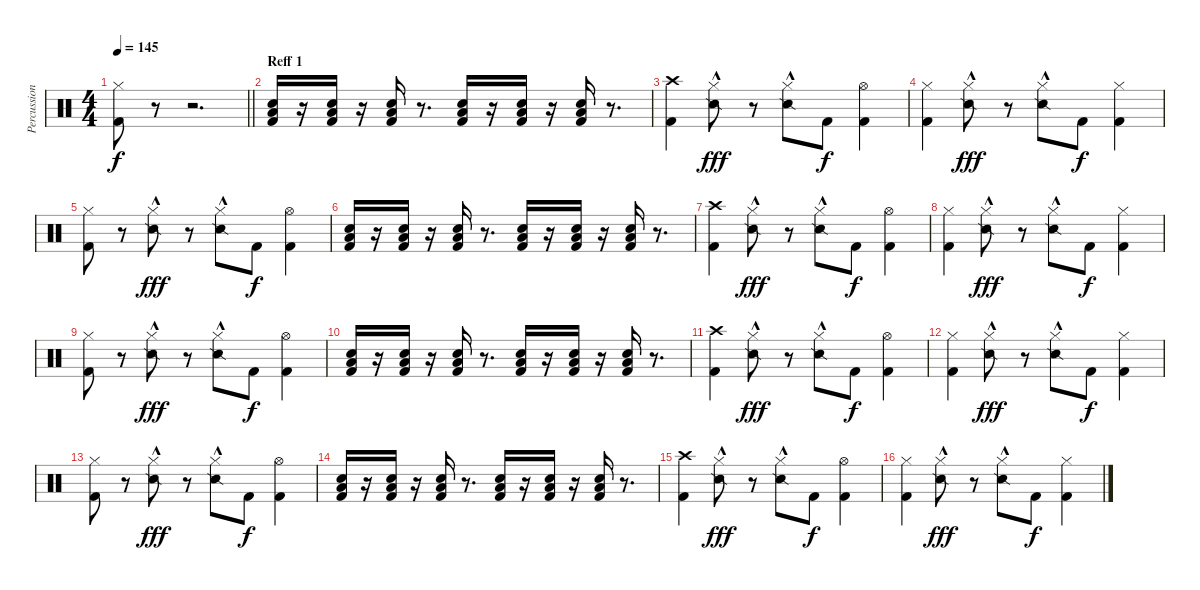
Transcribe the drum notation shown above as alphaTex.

\track ("Percussion 1" "Percussion") {instrument percussion}
\staff {score}
\articulation defaults
\ts (4 4)
\tempo 145
\clef neutral
\barLineRight lightlight
\ks c
("Hi-Hat (closed)" "Kick (hit) 2").8{dy f} r.8 r.2{d} |
\section ("" "Reff 1")
("Low Tom (hit)" "Electric Snare (hit)" "Kick (hit) 2").16 r.16 ("Low Tom (hit)" "Electric Snare (hit)" "Kick (hit) 2").16 r.16 ("Low Tom (hit)" "Electric Snare (hit)" "Kick (hit) 2").16 r.8{d} ("Low Tom (hit)" "Electric Snare (hit)" "Kick (hit) 2").16 r.16 ("Low Tom (hit)" "Electric Snare (hit)" "Kick (hit) 2").16 r.16 ("Low Tom (hit)" "Electric Snare (hit)" "Kick (hit) 2").16 r.8{d} |
("Crash high (hit)" "Kick (hit) 2").4 ("Hi-Hat (closed)" "Snare (side stick) 2"{hac}).8{dy fff} r.8 ("Hi-Hat (closed)" "Snare (side stick) 2"{hac}).8 "Kick (hit) 2".8{dy f} ("Hi-Hat (open)" "Kick (hit) 2").4 |
("Hi-Hat (closed)" "Kick (hit) 2").4 ("Hi-Hat (closed)" "Snare (side stick) 2"{hac}).8{dy fff} r.8 ("Hi-Hat (closed)" "Snare (side stick) 2"{hac}).8 "Kick (hit) 2".8{dy f} ("Hi-Hat (closed)" "Kick (hit) 2").4 |
("Hi-Hat (closed)" "Kick (hit) 2").8 r.8 ("Hi-Hat (closed)" "Snare (side stick) 2"{hac}).8{dy fff} r.8 ("Hi-Hat (closed)" "Snare (side stick) 2"{hac}).8 "Kick (hit) 2".8{dy f} ("Hi-Hat (open)" "Kick (hit) 2").4 |
("Low Tom (hit)" "Electric Snare (hit)" "Kick (hit) 2").16 r.16 ("Low Tom (hit)" "Electric Snare (hit)" "Kick (hit) 2").16 r.16 ("Low Tom (hit)" "Electric Snare (hit)" "Kick (hit) 2").16 r.8{d} ("Low Floor Tom (hit)" "Electric Snare (hit)" "Kick (hit) 2").16 r.16 ("Low Floor Tom (hit)" "Electric Snare (hit)" "Kick (hit) 2").16 r.16 ("Low Floor Tom (hit)" "Electric Snare (hit)" "Kick (hit) 2").16 r.8{d} |
("Crash high (hit)" "Kick (hit) 2").4 ("Hi-Hat (closed)" "Snare (side stick) 2"{hac}).8{dy fff} r.8 ("Hi-Hat (closed)" "Snare (side stick) 2"{hac}).8 "Kick (hit) 2".8{dy f} ("Hi-Hat (open)" "Kick (hit) 2").4 |
("Hi-Hat (closed)" "Kick (hit) 2").4 ("Hi-Hat (closed)" "Snare (side stick) 2"{hac}).8{dy fff} r.8 ("Hi-Hat (closed)" "Snare (side stick) 2"{hac}).8 "Kick (hit) 2".8{dy f} ("Hi-Hat (closed)" "Kick (hit) 2").4 |
("Hi-Hat (closed)" "Kick (hit) 2").8 r.8 ("Hi-Hat (closed)" "Snare (side stick) 2"{hac}).8{dy fff} r.8 ("Hi-Hat (closed)" "Snare (side stick) 2"{hac}).8 "Kick (hit) 2".8{dy f} ("Hi-Hat (open)" "Kick (hit) 2").4 |
("Low Tom (hit)" "Electric Snare (hit)" "Kick (hit) 2").16 r.16 ("Low Tom (hit)" "Electric Snare (hit)" "Kick (hit) 2").16 r.16 ("Low Tom (hit)" "Electric Snare (hit)" "Kick (hit) 2").16 r.8{d} ("Low Tom (hit)" "Electric Snare (hit)" "Kick (hit) 2").16 r.16 ("Low Tom (hit)" "Electric Snare (hit)" "Kick (hit) 2").16 r.16 ("Low Tom (hit)" "Electric Snare (hit)" "Kick (hit) 2").16 r.8{d} |
("Crash high (hit)" "Kick (hit) 2").4 ("Hi-Hat (closed)" "Snare (side stick) 2"{hac}).8{dy fff} r.8 ("Hi-Hat (closed)" "Snare (side stick) 2"{hac}).8 "Kick (hit) 2".8{dy f} ("Hi-Hat (open)" "Kick (hit) 2").4 |
("Hi-Hat (closed)" "Kick (hit) 2").4 ("Hi-Hat (closed)" "Snare (side stick) 2"{hac}).8{dy fff} r.8 ("Hi-Hat (closed)" "Snare (side stick) 2"{hac}).8 "Kick (hit) 2".8{dy f} ("Hi-Hat (closed)" "Kick (hit) 2").4 |
("Hi-Hat (closed)" "Kick (hit) 2").8 r.8 ("Hi-Hat (closed)" "Snare (side stick) 2"{hac}).8{dy fff} r.8 ("Hi-Hat (closed)" "Snare (side stick) 2"{hac}).8 "Kick (hit) 2".8{dy f} ("Hi-Hat (open)" "Kick (hit) 2").4 |
("Low Tom (hit)" "Electric Snare (hit)" "Kick (hit) 2").16 r.16 ("Low Tom (hit)" "Electric Snare (hit)" "Kick (hit) 2").16 r.16 ("Low Tom (hit)" "Electric Snare (hit)" "Kick (hit) 2").16 r.8{d} ("Low Floor Tom (hit)" "Electric Snare (hit)" "Kick (hit) 2").16 r.16 ("Low Floor Tom (hit)" "Electric Snare (hit)" "Kick (hit) 2").16 r.16 ("Low Floor Tom (hit)" "Electric Snare (hit)" "Kick (hit) 2").16 r.8{d} |
("Crash high (hit)" "Kick (hit) 2").4 ("Hi-Hat (closed)" "Snare (side stick) 2"{hac}).8{dy fff} r.8 ("Hi-Hat (closed)" "Snare (side stick) 2"{hac}).8 "Kick (hit) 2".8{dy f} ("Hi-Hat (open)" "Kick (hit) 2").4 |
("Hi-Hat (closed)" "Kick (hit) 2").4 ("Hi-Hat (closed)" "Snare (side stick) 2"{hac}).8{dy fff} r.8 ("Hi-Hat (closed)" "Snare (side stick) 2"{hac}).8 "Kick (hit) 2".8{dy f} ("Hi-Hat (closed)" "Kick (hit) 2").4
